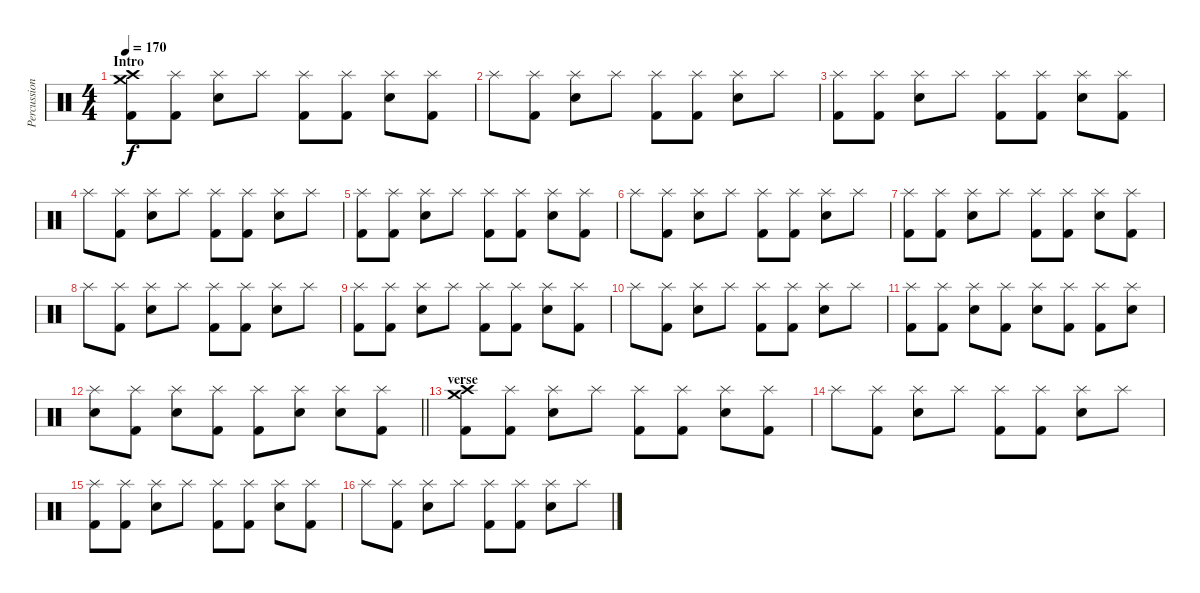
\track ("Percussion" "Percussion") {instrument percussion}
\staff {score}
\articulation defaults
\ts (4 4)
\section ("" "Intro")
\tempo 170
\clef neutral
\ks c
("Crash medium (hit)" "Crash high (hit)" "Kick (hit) 2").8{dy f} ("Splash (hit)" "Kick (hit) 2").8 ("Splash (hit)" "Electric Snare (hit)").8 "Splash (hit)".8 ("Splash (hit)" "Kick (hit) 2").8 ("Splash (hit)" "Kick (hit) 2").8 ("Splash (hit)" "Electric Snare (hit)").8 ("Splash (hit)" "Kick (hit) 2").8 |
"Splash (hit)".8 ("Splash (hit)" "Kick (hit) 2").8 ("Splash (hit)" "Electric Snare (hit)").8 "Splash (hit)".8 ("Splash (hit)" "Kick (hit) 2").8 ("Splash (hit)" "Kick (hit) 2").8 ("Splash (hit)" "Electric Snare (hit)").8 "Splash (hit)".8 |
("Splash (hit)" "Kick (hit) 2").8 ("Splash (hit)" "Kick (hit) 2").8 ("Splash (hit)" "Electric Snare (hit)").8 "Splash (hit)".8 ("Splash (hit)" "Kick (hit) 2").8 ("Splash (hit)" "Kick (hit) 2").8 ("Splash (hit)" "Electric Snare (hit)").8 ("Splash (hit)" "Kick (hit) 2").8 |
"Splash (hit)".8 ("Splash (hit)" "Kick (hit) 2").8 ("Splash (hit)" "Electric Snare (hit)").8 "Splash (hit)".8 ("Splash (hit)" "Kick (hit) 2").8 ("Splash (hit)" "Kick (hit) 2").8 ("Splash (hit)" "Electric Snare (hit)").8 "Splash (hit)".8 |
("Splash (hit)" "Kick (hit) 2").8 ("Splash (hit)" "Kick (hit) 2").8 ("Splash (hit)" "Electric Snare (hit)").8 "Splash (hit)".8 ("Splash (hit)" "Kick (hit) 2").8 ("Splash (hit)" "Kick (hit) 2").8 ("Splash (hit)" "Electric Snare (hit)").8 ("Splash (hit)" "Kick (hit) 2").8 |
"Splash (hit)".8 ("Splash (hit)" "Kick (hit) 2").8 ("Splash (hit)" "Electric Snare (hit)").8 "Splash (hit)".8 ("Splash (hit)" "Kick (hit) 2").8 ("Splash (hit)" "Kick (hit) 2").8 ("Splash (hit)" "Electric Snare (hit)").8 "Splash (hit)".8 |
("Splash (hit)" "Kick (hit) 2").8 ("Splash (hit)" "Kick (hit) 2").8 ("Splash (hit)" "Electric Snare (hit)").8 "Splash (hit)".8 ("Splash (hit)" "Kick (hit) 2").8 ("Splash (hit)" "Kick (hit) 2").8 ("Splash (hit)" "Electric Snare (hit)").8 ("Splash (hit)" "Kick (hit) 2").8 |
"Splash (hit)".8 ("Splash (hit)" "Kick (hit) 2").8 ("Splash (hit)" "Electric Snare (hit)").8 "Splash (hit)".8 ("Splash (hit)" "Kick (hit) 2").8 ("Splash (hit)" "Kick (hit) 2").8 ("Splash (hit)" "Electric Snare (hit)").8 "Splash (hit)".8 |
("Splash (hit)" "Kick (hit) 2").8 ("Splash (hit)" "Kick (hit) 2").8 ("Splash (hit)" "Electric Snare (hit)").8 "Splash (hit)".8 ("Splash (hit)" "Kick (hit) 2").8 ("Splash (hit)" "Kick (hit) 2").8 ("Splash (hit)" "Electric Snare (hit)").8 ("Splash (hit)" "Kick (hit) 2").8 |
"Splash (hit)".8 ("Splash (hit)" "Kick (hit) 2").8 ("Splash (hit)" "Electric Snare (hit)").8 "Splash (hit)".8 ("Splash (hit)" "Kick (hit) 2").8 ("Splash (hit)" "Kick (hit) 2").8 ("Splash (hit)" "Electric Snare (hit)").8 "Splash (hit)".8 |
("Splash (hit)" "Kick (hit) 2").8 ("Splash (hit)" "Kick (hit) 2").8 ("Splash (hit)" "Electric Snare (hit)").8 ("Splash (hit)" "Kick (hit) 2").8 ("Splash (hit)" "Electric Snare (hit)").8 ("Splash (hit)" "Kick (hit) 2").8 ("Splash (hit)" "Kick (hit) 2").8 ("Splash (hit)" "Electric Snare (hit)").8 |
\barLineRight lightlight
("Splash (hit)" "Electric Snare (hit)").8 ("Splash (hit)" "Kick (hit) 2").8 ("Splash (hit)" "Electric Snare (hit)").8 ("Splash (hit)" "Kick (hit) 2").8 ("Splash (hit)" "Kick (hit) 2").8 ("Splash (hit)" "Electric Snare (hit)").8 ("Splash (hit)" "Electric Snare (hit)").8 ("Splash (hit)" "Kick (hit) 2").8 |
\section ("" "verse")
("Crash medium (hit)" "Crash high (hit)" "Kick (hit) 2").8 ("Splash (hit)" "Kick (hit) 2").8 ("Splash (hit)" "Electric Snare (hit)").8 "Splash (hit)".8 ("Splash (hit)" "Kick (hit) 2").8 ("Splash (hit)" "Kick (hit) 2").8 ("Splash (hit)" "Electric Snare (hit)").8 ("Splash (hit)" "Kick (hit) 2").8 |
"Splash (hit)".8 ("Splash (hit)" "Kick (hit) 2").8 ("Splash (hit)" "Electric Snare (hit)").8 "Splash (hit)".8 ("Splash (hit)" "Kick (hit) 2").8 ("Splash (hit)" "Kick (hit) 2").8 ("Splash (hit)" "Electric Snare (hit)").8 "Splash (hit)".8 |
("Splash (hit)" "Kick (hit) 2").8 ("Splash (hit)" "Kick (hit) 2").8 ("Splash (hit)" "Electric Snare (hit)").8 "Splash (hit)".8 ("Splash (hit)" "Kick (hit) 2").8 ("Splash (hit)" "Kick (hit) 2").8 ("Splash (hit)" "Electric Snare (hit)").8 ("Splash (hit)" "Kick (hit) 2").8 |
"Splash (hit)".8 ("Splash (hit)" "Kick (hit) 2").8 ("Splash (hit)" "Electric Snare (hit)").8 "Splash (hit)".8 ("Splash (hit)" "Kick (hit) 2").8 ("Splash (hit)" "Kick (hit) 2").8 ("Splash (hit)" "Electric Snare (hit)").8 "Splash (hit)".8
